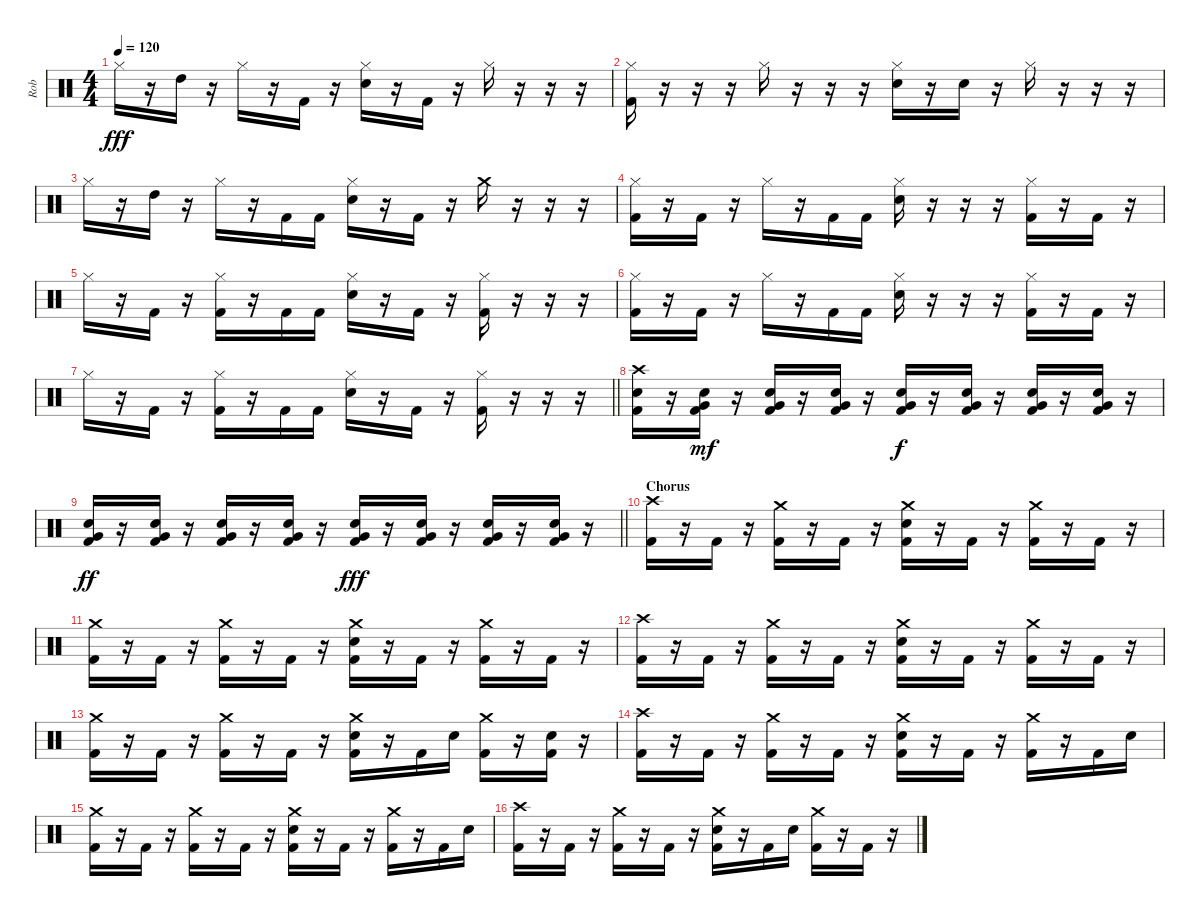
\track ("Rob" "Rob") {instrument percussion}
\staff {score}
\articulation defaults
\ts (4 4)
\tempo 120
\clef neutral
\ks c "Hi-Hat (closed)".16{dy fff}
r.16 "High Tom (hit)".16 r.16 "Hi-Hat (closed)".16 r.16 "Kick (hit) 2".16 r.16 ("Hi-Hat (closed)" "Electric Snare (hit)").16 r.16 "Kick (hit) 2".16 r.16 "Hi-Hat (closed)".16 r.16 r.16 r.16 |
("Hi-Hat (closed)" "Kick (hit) 2").16 r.16 r.16 r.16 "Hi-Hat (closed)".16 r.16 r.16 r.16 ("Hi-Hat (closed)" "Electric Snare (hit)").16 r.16 "Electric Snare (hit)".16 r.16 "Hi-Hat (closed)".16 r.16 r.16 r.16 |
"Hi-Hat (closed)".16 r.16 "High Tom (hit)".16 r.16 "Hi-Hat (closed)".16 r.16 "Kick (hit) 2".16 "Kick (hit) 2".16 ("Hi-Hat (closed)" "Electric Snare (hit)").16 r.16 "Kick (hit) 2".16 r.16 "Crash medium (hit)".16 r.16 r.16 r.16 |
("Hi-Hat (closed)" "Kick (hit) 2").16 r.16 "Kick (hit) 2".16 r.16 "Hi-Hat (closed)".16 r.16 "Kick (hit) 2".16 "Kick (hit) 2".16 ("Hi-Hat (closed)" "Electric Snare (hit)").16 r.16 r.16 r.16 ("Hi-Hat (closed)" "Kick (hit) 2").16 r.16 "Kick (hit) 2".16 r.16 |
"Hi-Hat (closed)".16 r.16 "Kick (hit) 2".16 r.16 ("Hi-Hat (closed)" "Kick (hit) 2").16 r.16 "Kick (hit) 2".16 "Kick (hit) 2".16 ("Hi-Hat (closed)" "Electric Snare (hit)").16 r.16 "Kick (hit) 2".16 r.16 ("Hi-Hat (closed)" "Kick (hit) 2").16 r.16 r.16 r.16 |
("Hi-Hat (closed)" "Kick (hit) 2").16 r.16 "Kick (hit) 2".16 r.16 "Hi-Hat (closed)".16 r.16 "Kick (hit) 2".16 "Kick (hit) 2".16 ("Hi-Hat (closed)" "Electric Snare (hit)").16 r.16 r.16 r.16 ("Hi-Hat (closed)" "Kick (hit) 2").16 r.16 "Kick (hit) 2".16 r.16 |
\barLineRight lightlight "Hi-Hat (closed)".16
r.16 "Kick (hit) 2".16 r.16 ("Hi-Hat (closed)" "Kick (hit) 2").16 r.16 "Kick (hit) 2".16 "Kick (hit) 2".16 ("Hi-Hat (closed)" "Electric Snare (hit)").16 r.16 "Kick (hit) 2".16 r.16 ("Hi-Hat (closed)" "Kick (hit) 2").16 r.16 r.16 r.16 |
("Crash high (hit)" "Electric Snare (hit)" "Kick (hit) 2").16 r.16 ("Electric Snare (hit)" "Very Low Tom (hit)" "Kick (hit) 2").16{dy mf} r.16 ("Electric Snare (hit)" "Very Low Tom (hit)" "Kick (hit) 2").16 r.16 ("Electric Snare (hit)" "Very Low Tom (hit)" "Kick (hit) 2").16 r.16 ("Electric Snare (hit)" "Very Low Tom (hit)" "Kick (hit) 2").16{dy f} r.16 ("Electric Snare (hit)" "Very Low Tom (hit)" "Kick (hit) 2").16 r.16 ("Electric Snare (hit)" "Very Low Tom (hit)" "Kick (hit) 2").16 r.16 ("Electric Snare (hit)" "Very Low Tom (hit)" "Kick (hit) 2").16 r.16 |
\barLineRight lightlight
("Electric Snare (hit)" "Very Low Tom (hit)" "Kick (hit) 2").16{dy ff} r.16 ("Electric Snare (hit)" "Very Low Tom (hit)" "Kick (hit) 2").16 r.16 ("Electric Snare (hit)" "Very Low Tom (hit)" "Kick (hit) 2").16 r.16 ("Electric Snare (hit)" "Very Low Tom (hit)" "Kick (hit) 2").16 r.16 ("Electric Snare (hit)" "Very Low Tom (hit)" "Kick (hit) 2").16{dy fff} r.16 ("Electric Snare (hit)" "Very Low Tom (hit)" "Kick (hit) 2").16 r.16 ("Electric Snare (hit)" "Very Low Tom (hit)" "Kick (hit) 2").16 r.16 ("Electric Snare (hit)" "Very Low Tom (hit)" "Kick (hit) 2").16 r.16 |
\section ("" "Chorus")
("Crash high (hit)" "Kick (hit) 2").16 r.16 "Kick (hit) 2".16 r.16 ("Crash medium (hit)" "Kick (hit) 2").16 r.16 "Kick (hit) 2".16 r.16 ("Crash medium (hit)" "Electric Snare (hit)" "Kick (hit) 2").16 r.16 "Kick (hit) 2".16 r.16 ("Crash medium (hit)" "Kick (hit) 2").16 r.16 "Kick (hit) 2".16 r.16 |
("Crash medium (hit)" "Kick (hit) 2").16 r.16 "Kick (hit) 2".16 r.16 ("Crash medium (hit)" "Kick (hit) 2").16 r.16 "Kick (hit) 2".16 r.16 ("Crash medium (hit)" "Electric Snare (hit)" "Kick (hit) 2").16 r.16 "Kick (hit) 2".16 r.16 ("Crash medium (hit)" "Kick (hit) 2").16 r.16 "Kick (hit) 2".16 r.16 |
("Crash high (hit)" "Kick (hit) 2").16 r.16 "Kick (hit) 2".16 r.16 ("Crash medium (hit)" "Kick (hit) 2").16 r.16 "Kick (hit) 2".16 r.16 ("Crash medium (hit)" "Electric Snare (hit)" "Kick (hit) 2").16 r.16 "Kick (hit) 2".16 r.16 ("Crash medium (hit)" "Kick (hit) 2").16 r.16 "Kick (hit) 2".16 r.16 |
("Crash medium (hit)" "Kick (hit) 2").16 r.16 "Kick (hit) 2".16 r.16 ("Crash medium (hit)" "Kick (hit) 2").16 r.16 "Kick (hit) 2".16 r.16 ("Crash medium (hit)" "Electric Snare (hit)" "Kick (hit) 2").16 r.16 "Kick (hit) 2".16 "Electric Snare (hit)".16 ("Crash medium (hit)" "Kick (hit) 2").16 r.16 ("Electric Snare (hit)" "Kick (hit) 2").16 r.16 |
("Crash high (hit)" "Kick (hit) 2").16 r.16 "Kick (hit) 2".16 r.16 ("Crash medium (hit)" "Kick (hit) 2").16 r.16 "Kick (hit) 2".16 r.16 ("Crash medium (hit)" "Electric Snare (hit)" "Kick (hit) 2").16 r.16 "Kick (hit) 2".16 r.16 ("Crash medium (hit)" "Kick (hit) 2").16 r.16 "Kick (hit) 2".16 "Electric Snare (hit)".16 |
("Crash medium (hit)" "Kick (hit) 2").16 r.16 "Kick (hit) 2".16 r.16 ("Crash medium (hit)" "Kick (hit) 2").16 r.16 "Kick (hit) 2".16 r.16 ("Crash medium (hit)" "Electric Snare (hit)" "Kick (hit) 2").16 r.16 "Kick (hit) 2".16 r.16 ("Crash medium (hit)" "Kick (hit) 2").16 r.16 "Kick (hit) 2".16 "Electric Snare (hit)".16 |
("Crash high (hit)" "Kick (hit) 2").16 r.16 "Kick (hit) 2".16 r.16 ("Crash medium (hit)" "Kick (hit) 2").16 r.16 "Kick (hit) 2".16 r.16 ("Crash medium (hit)" "Electric Snare (hit)" "Kick (hit) 2").16 r.16 "Kick (hit) 2".16 "Electric Snare (hit)".16 ("Crash medium (hit)" "Kick (hit) 2").16 r.16 "Kick (hit) 2".16 r.16
